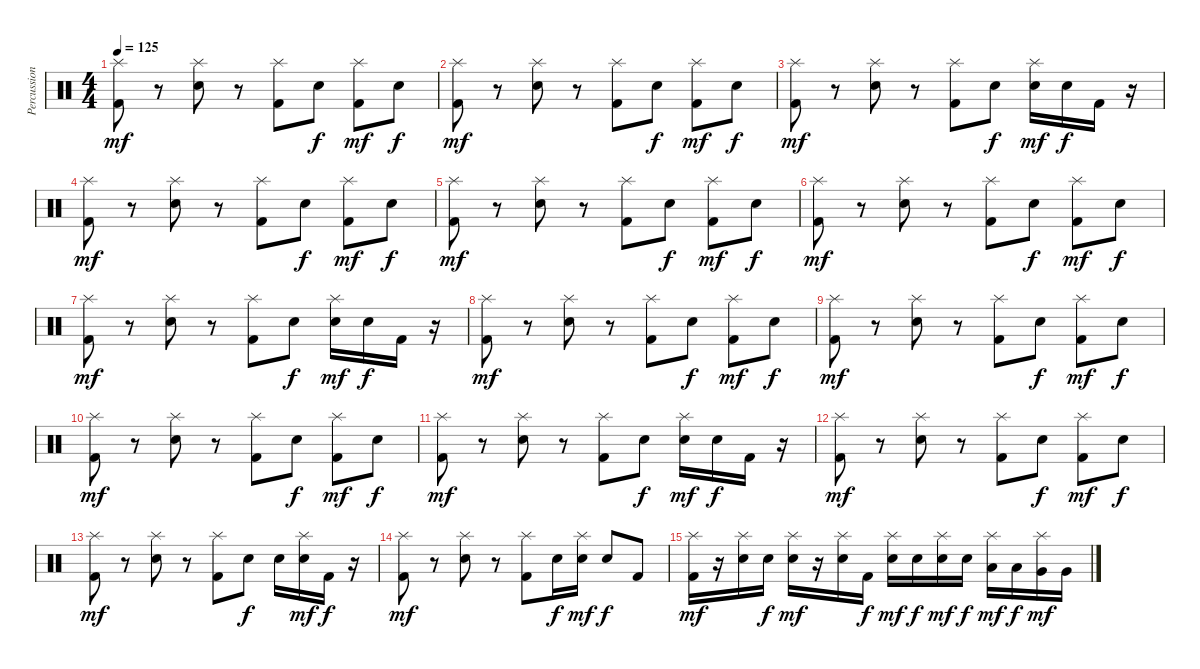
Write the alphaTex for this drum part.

\track ("Percussion" "Percussion") {instrument percussion}
\staff {score}
\articulation defaults
\ts (4 4)
\tempo 125
\clef neutral
\ks c
("Kick (hit) 2" "Splash (hit)").8{dy mf} r.8 ("Snare (hit) 2" "Splash (hit)").8 r.8 ("Kick (hit) 2" "Splash (hit)").8 "Snare (hit) 2".8{dy f} ("Kick (hit) 2" "Splash (hit)").8{dy mf} "Snare (hit) 2".8{dy f} |
("Kick (hit) 2" "Splash (hit)").8{dy mf} r.8 ("Snare (hit) 2" "Splash (hit)").8 r.8 ("Kick (hit) 2" "Splash (hit)").8 "Snare (hit) 2".8{dy f} ("Kick (hit) 2" "Splash (hit)").8{dy mf} "Snare (hit) 2".8{dy f} |
("Kick (hit) 2" "Splash (hit)").8{dy mf} r.8 ("Snare (hit) 2" "Splash (hit)").8 r.8 ("Kick (hit) 2" "Splash (hit)").8 "Snare (hit) 2".8{dy f} ("Snare (hit) 2" "Splash (hit)").16{dy mf} "Snare (hit) 2".16{dy f} "Kick (hit) 2".16 r.16 |
("Kick (hit) 2" "Splash (hit)").8{dy mf} r.8 ("Snare (hit) 2" "Splash (hit)").8 r.8 ("Kick (hit) 2" "Splash (hit)").8 "Snare (hit) 2".8{dy f} ("Kick (hit) 2" "Splash (hit)").8{dy mf} "Snare (hit) 2".8{dy f} |
("Kick (hit) 2" "Splash (hit)").8{dy mf} r.8 ("Snare (hit) 2" "Splash (hit)").8 r.8 ("Kick (hit) 2" "Splash (hit)").8 "Snare (hit) 2".8{dy f} ("Kick (hit) 2" "Splash (hit)").8{dy mf} "Snare (hit) 2".8{dy f} |
("Kick (hit) 2" "Splash (hit)").8{dy mf} r.8 ("Snare (hit) 2" "Splash (hit)").8 r.8 ("Kick (hit) 2" "Splash (hit)").8 "Snare (hit) 2".8{dy f} ("Kick (hit) 2" "Splash (hit)").8{dy mf} "Snare (hit) 2".8{dy f} |
("Kick (hit) 2" "Splash (hit)").8{dy mf} r.8 ("Snare (hit) 2" "Splash (hit)").8 r.8 ("Kick (hit) 2" "Splash (hit)").8 "Snare (hit) 2".8{dy f} ("Snare (hit) 2" "Splash (hit)").16{dy mf} "Snare (hit) 2".16{dy f} "Kick (hit) 2".16 r.16 |
("Kick (hit) 2" "Splash (hit)").8{dy mf} r.8 ("Snare (hit) 2" "Splash (hit)").8 r.8 ("Kick (hit) 2" "Splash (hit)").8 "Snare (hit) 2".8{dy f} ("Kick (hit) 2" "Splash (hit)").8{dy mf} "Snare (hit) 2".8{dy f} |
("Kick (hit) 2" "Splash (hit)").8{dy mf} r.8 ("Snare (hit) 2" "Splash (hit)").8 r.8 ("Kick (hit) 2" "Splash (hit)").8 "Snare (hit) 2".8{dy f} ("Kick (hit) 2" "Splash (hit)").8{dy mf} "Snare (hit) 2".8{dy f} |
("Kick (hit) 2" "Splash (hit)").8{dy mf} r.8 ("Snare (hit) 2" "Splash (hit)").8 r.8 ("Kick (hit) 2" "Splash (hit)").8 "Snare (hit) 2".8{dy f} ("Kick (hit) 2" "Splash (hit)").8{dy mf} "Snare (hit) 2".8{dy f} |
("Kick (hit) 2" "Splash (hit)").8{dy mf} r.8 ("Snare (hit) 2" "Splash (hit)").8 r.8 ("Kick (hit) 2" "Splash (hit)").8 "Snare (hit) 2".8{dy f} ("Snare (hit) 2" "Splash (hit)").16{dy mf} "Snare (hit) 2".16{dy f} "Kick (hit) 2".16 r.16 |
("Kick (hit) 2" "Splash (hit)").8{dy mf} r.8 ("Snare (hit) 2" "Splash (hit)").8 r.8 ("Kick (hit) 2" "Splash (hit)").8 "Snare (hit) 2".8{dy f} ("Kick (hit) 2" "Splash (hit)").8{dy mf} "Snare (hit) 2".8{dy f} |
("Kick (hit) 2" "Splash (hit)").8{dy mf} r.8 ("Snare (hit) 2" "Splash (hit)").8 r.8 ("Kick (hit) 2" "Splash (hit)").8 "Snare (hit) 2".8{dy f} "Snare (hit) 2".16 ("Snare (hit) 2" "Splash (hit)").16{dy mf} "Kick (hit) 2".16{dy f} r.16 |
("Kick (hit) 2" "Splash (hit)").8{dy mf} r.8 ("Snare (hit) 2" "Splash (hit)").8 r.8 ("Kick (hit) 2" "Splash (hit)").8 "Snare (hit) 2".16{dy f} ("Snare (hit) 2" "Splash (hit)").16{dy mf} "Snare (hit) 2".8{dy f} "Kick (hit) 2".8 |
("Kick (hit) 2" "Splash (hit)").16{dy mf} r.16 ("Snare (hit) 2" "Splash (hit)").16 "Snare (hit) 2".16{dy f} ("Snare (hit) 2" "Splash (hit)").16{dy mf} r.16 ("Snare (hit) 2" "Splash (hit)").16 "Kick (hit) 2".16{dy f} ("Snare (hit) 2" "Splash (hit)").16{dy mf} "Snare (hit) 2".16{dy f} ("Snare (hit) 2" "Splash (hit)").16{dy mf} "Snare (hit) 2".16{dy f} ("Low Tom (hit)" "Splash (hit)").16{dy mf} "Low Tom (hit)".16{dy f} ("Very Low Tom (hit)" "Splash (hit)").16{dy mf} "Very Low Tom (hit)".16
